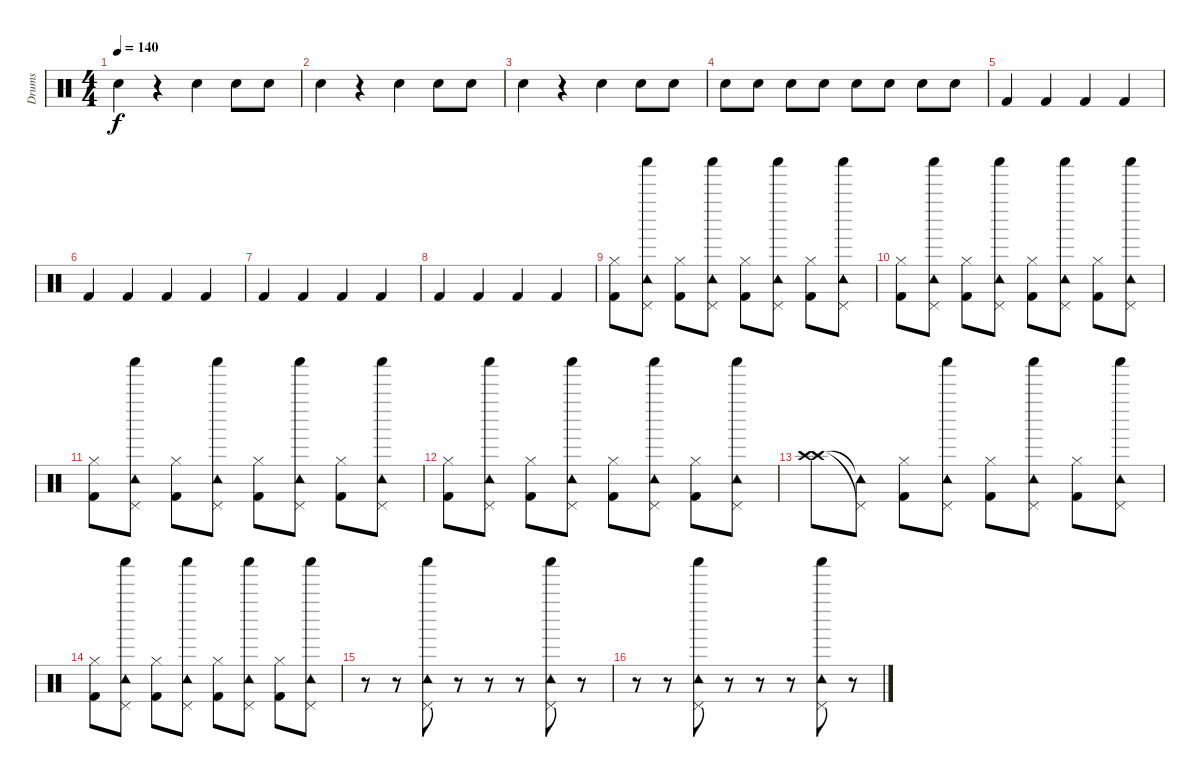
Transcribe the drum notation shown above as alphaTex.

\track ("Drums" "Drums") {instrument percussion}
\staff {score}
\articulation defaults
\ts (4 4)
\tempo 140
\clef neutral
\ks c "Electric Snare (hit)".4{dy f volume 11}
r.4 "Electric Snare (hit)".4 "Electric Snare (hit)".8 "Electric Snare (hit)".8 |
"Electric Snare (hit)".4 r.4 "Electric Snare (hit)".4 "Electric Snare (hit)".8 "Electric Snare (hit)".8 |
"Electric Snare (hit)".4 r.4 "Electric Snare (hit)".4{volume 16} "Electric Snare (hit)".8 "Electric Snare (hit)".8 |
"Electric Snare (hit)".8 "Electric Snare (hit)".8 "Electric Snare (hit)".8 "Electric Snare (hit)".8 "Electric Snare (hit)".8 "Electric Snare (hit)".8 "Electric Snare (hit)".8 "Electric Snare (hit)".8 |
"Kick (hit) 2".4 "Kick (hit) 2".4 "Kick (hit) 2".4 "Kick (hit) 2".4 |
"Kick (hit) 2".4 "Kick (hit) 2".4 "Kick (hit) 2".4 "Kick (hit) 2".4 |
"Kick (hit) 2".4 "Kick (hit) 2".4 "Kick (hit) 2".4 "Kick (hit) 2".4 |
"Kick (hit) 2".4 "Kick (hit) 2".4 "Kick (hit) 2".4 "Kick (hit) 2".4 |
("Kick (hit) 2" "Hi-Hat (closed)").8 ("Pedal Hi-Hat (hit)" "Tambourine (hit)" "Shaker (hit)").8 ("Kick (hit) 2" "Hi-Hat (closed)").8 ("Pedal Hi-Hat (hit)" "Tambourine (hit)" "Shaker (hit)").8 ("Kick (hit) 2" "Hi-Hat (closed)").8 ("Pedal Hi-Hat (hit)" "Tambourine (hit)" "Shaker (hit)").8 ("Kick (hit) 2" "Hi-Hat (closed)").8 ("Pedal Hi-Hat (hit)" "Tambourine (hit)" "Shaker (hit)").8 |
("Kick (hit) 2" "Hi-Hat (closed)").8 ("Pedal Hi-Hat (hit)" "Tambourine (hit)" "Shaker (hit)").8 ("Kick (hit) 2" "Hi-Hat (closed)").8 ("Pedal Hi-Hat (hit)" "Tambourine (hit)" "Shaker (hit)").8 ("Kick (hit) 2" "Hi-Hat (closed)").8 ("Pedal Hi-Hat (hit)" "Tambourine (hit)" "Shaker (hit)").8 ("Kick (hit) 2" "Hi-Hat (closed)").8 ("Pedal Hi-Hat (hit)" "Tambourine (hit)" "Shaker (hit)").8 |
("Kick (hit) 2" "Hi-Hat (closed)").8 ("Pedal Hi-Hat (hit)" "Tambourine (hit)" "Shaker (hit)").8 ("Kick (hit) 2" "Hi-Hat (closed)").8 ("Pedal Hi-Hat (hit)" "Tambourine (hit)" "Shaker (hit)").8 ("Kick (hit) 2" "Hi-Hat (closed)").8 ("Pedal Hi-Hat (hit)" "Tambourine (hit)" "Shaker (hit)").8 ("Kick (hit) 2" "Hi-Hat (closed)").8 ("Pedal Hi-Hat (hit)" "Tambourine (hit)" "Shaker (hit)").8 |
("Kick (hit) 2" "Hi-Hat (closed)").8 ("Pedal Hi-Hat (hit)" "Tambourine (hit)" "Shaker (hit)").8 ("Kick (hit) 2" "Hi-Hat (closed)").8 ("Pedal Hi-Hat (hit)" "Tambourine (hit)" "Shaker (hit)").8 ("Kick (hit) 2" "Hi-Hat (closed)").8 ("Pedal Hi-Hat (hit)" "Tambourine (hit)" "Shaker (hit)").8 ("Kick (hit) 2" "Hi-Hat (closed)").8 ("Pedal Hi-Hat (hit)" "Tambourine (hit)" "Shaker (hit)").8 |
("Crash high (hit)" "Crash high (hit)").8 ("Pedal Hi-Hat (hit)"{t} "Tambourine (hit)"{t}).8 ("Hi-Hat (closed)" "Kick (hit) 2").8 ("Pedal Hi-Hat (hit)" "Tambourine (hit)" "Shaker (hit)").8 ("Kick (hit) 2" "Hi-Hat (closed)").8 ("Pedal Hi-Hat (hit)" "Tambourine (hit)" "Shaker (hit)").8 ("Kick (hit) 2" "Hi-Hat (closed)").8 ("Pedal Hi-Hat (hit)" "Tambourine (hit)" "Shaker (hit)").8 |
("Kick (hit) 2" "Hi-Hat (closed)").8 ("Pedal Hi-Hat (hit)" "Tambourine (hit)" "Shaker (hit)").8 ("Kick (hit) 2" "Hi-Hat (closed)").8 ("Pedal Hi-Hat (hit)" "Tambourine (hit)" "Shaker (hit)").8 ("Kick (hit) 2" "Hi-Hat (closed)").8 ("Pedal Hi-Hat (hit)" "Tambourine (hit)" "Shaker (hit)").8 ("Kick (hit) 2" "Hi-Hat (closed)").8 ("Pedal Hi-Hat (hit)" "Tambourine (hit)" "Shaker (hit)").8 |
r.8 r.8 ("Pedal Hi-Hat (hit)" "Tambourine (hit)" "Shaker (hit)").8 r.8 r.8 r.8 ("Pedal Hi-Hat (hit)" "Tambourine (hit)" "Shaker (hit)").8 r.8 |
r.8 r.8 ("Pedal Hi-Hat (hit)" "Tambourine (hit)" "Shaker (hit)").8 r.8 r.8 r.8 ("Pedal Hi-Hat (hit)" "Tambourine (hit)" "Shaker (hit)").8 r.8
